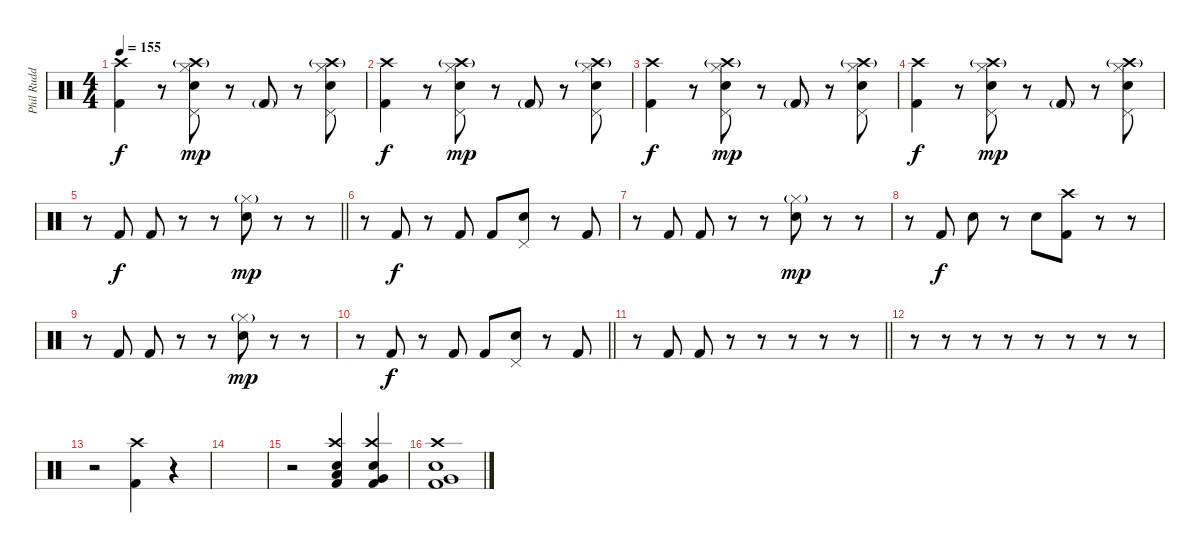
\track ("Phil Rudd" "Phil Rudd") {instrument percussion}
\staff {score}
\articulation defaults
\ts (4 4)
\tempo 155
\clef neutral
\ks c
("Kick (hit) 2" "Crash high (hit)").4{dy f} r.8 ("Snare (hit) 2" "Pedal Hi-Hat (hit)" "Hi-Hat (closed)" "Crash high (hit)"{g}).8{dy mp} r.8 "Kick (hit) 2"{g}.8 r.8 ("Snare (hit) 2" "Pedal Hi-Hat (hit)" "Hi-Hat (closed)" "Crash high (hit)"{g}).8 |
("Crash high (hit)" "Kick (hit) 2").4{dy f} r.8 ("Snare (hit) 2" "Pedal Hi-Hat (hit)" "Hi-Hat (closed)" "Crash high (hit)"{g}).8{dy mp} r.8 "Kick (hit) 2"{g}.8 r.8 ("Snare (hit) 2" "Pedal Hi-Hat (hit)" "Hi-Hat (closed)" "Crash high (hit)"{g}).8 |
("Kick (hit) 2" "Crash high (hit)").4{dy f} r.8 ("Snare (hit) 2" "Pedal Hi-Hat (hit)" "Hi-Hat (closed)" "Crash high (hit)"{g}).8{dy mp} r.8 "Kick (hit) 2"{g}.8 r.8 ("Snare (hit) 2" "Pedal Hi-Hat (hit)" "Hi-Hat (closed)" "Crash high (hit)"{g}).8 |
("Crash high (hit)" "Kick (hit) 2").4{dy f} r.8 ("Snare (hit) 2" "Pedal Hi-Hat (hit)" "Hi-Hat (closed)" "Crash high (hit)"{g}).8{dy mp} r.8 "Kick (hit) 2"{g}.8 r.8 ("Snare (hit) 2" "Pedal Hi-Hat (hit)" "Hi-Hat (closed)" "Crash high (hit)"{g}).8 |
\barLineRight lightlight
r.8 "Kick (hit) 2".8{dy f} "Kick (hit) 2".8 r.8 r.8 ("Hi-Hat (closed)"{g} "Snare (hit) 2").8{dy mp} r.8 r.8 |
r.8 "Kick (hit) 2".8{dy f} r.8 "Kick (hit) 2".8 "Kick (hit) 2".8 ("Pedal Hi-Hat (hit)" "Snare (hit) 2").8 r.8 "Kick (hit) 2".8 |
r.8 "Kick (hit) 2".8 "Kick (hit) 2".8 r.8 r.8 ("Hi-Hat (closed)"{g} "Snare (hit) 2").8{dy mp} r.8 r.8 |
r.8 "Kick (hit) 2".8{dy f} "Snare (hit) 2".8 r.8 "Snare (hit) 2".8 ("Kick (hit) 2" "Crash high (hit)").8 r.8 r.8 |
r.8 "Kick (hit) 2".8 "Kick (hit) 2".8 r.8 r.8 ("Hi-Hat (closed)"{g} "Snare (hit) 2").8{dy mp} r.8 r.8 |
\barLineRight lightlight
r.8 "Kick (hit) 2".8{dy f} r.8 "Kick (hit) 2".8 "Kick (hit) 2".8 ("Pedal Hi-Hat (hit)" "Snare (hit) 2").8 r.8 "Kick (hit) 2".8 |
\barLineRight lightlight
r.8 "Kick (hit) 2".8 "Kick (hit) 2".8 r.8 r.8 r.8 r.8 r.8 |
r.8 r.8 r.8 r.8 r.8 r.8 r.8 r.8 |
r.2 ("Crash high (hit)" "Kick (hit) 2").4 r.4 |
|
r.2 ("Crash high (hit)" "Snare (hit) 2" "Kick (hit) 2" "Low Tom (hit)").4 ("Crash high (hit)" "Snare (hit) 2" "Kick (hit) 2" "Very Low Tom (hit)").4 |
("Crash high (hit)" "Kick (hit) 2" "Snare (hit) 2" "Very Low Tom (hit)").1
